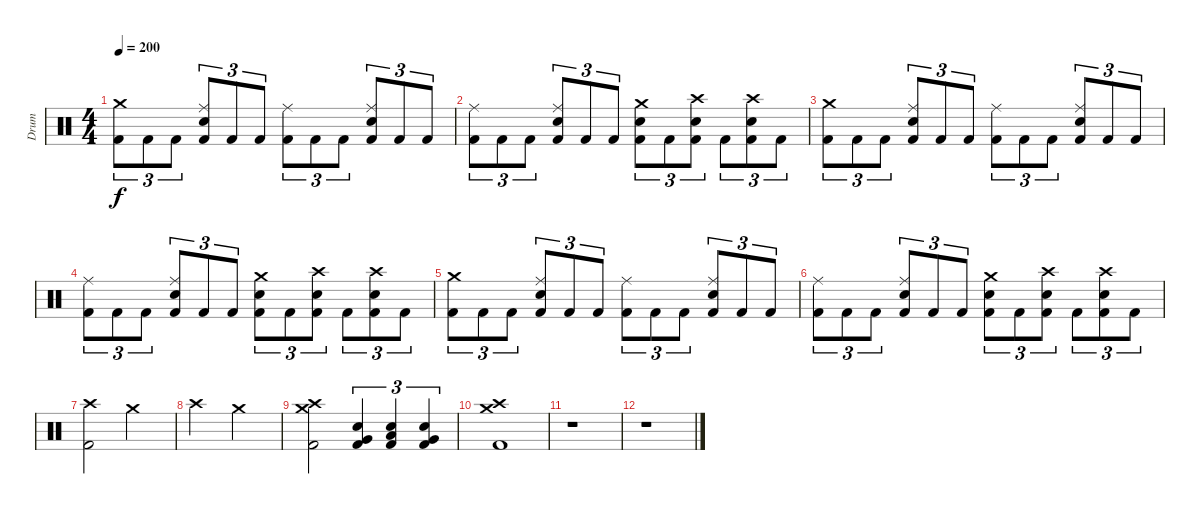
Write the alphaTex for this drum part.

\track ("Drum" "Drum") {instrument percussion}
\staff {score}
\articulation defaults
\ts (4 4)
\tempo 200
\clef neutral
\ks c
("Crash medium (hit)" "Kick (hit) 2").8{tu (3 2) dy f} "Kick (hit) 2".8{tu (3 2)} "Kick (hit) 2".8{tu (3 2)} ("Ride (middle)" "Electric Snare (hit)" "Kick (hit) 2").8{tu (3 2)} "Kick (hit) 2".8{tu (3 2)} "Kick (hit) 2".8{tu (3 2)} ("Ride (middle)" "Kick (hit) 2").8{tu (3 2)} "Kick (hit) 2".8{tu (3 2)} "Kick (hit) 2".8{tu (3 2)} ("Ride (middle)" "Electric Snare (hit)" "Kick (hit) 2").8{tu (3 2)} "Kick (hit) 2".8{tu (3 2)} "Kick (hit) 2".8{tu (3 2)} |
("Ride (middle)" "Kick (hit) 2").8{tu (3 2)} "Kick (hit) 2".8{tu (3 2)} "Kick (hit) 2".8{tu (3 2)} ("Ride (middle)" "Electric Snare (hit)" "Kick (hit) 2").8{tu (3 2)} "Kick (hit) 2".8{tu (3 2)} "Kick (hit) 2".8{tu (3 2)} ("Crash medium (hit)" "Electric Snare (hit)" "Kick (hit) 2").8{tu (3 2)} "Kick (hit) 2".8{tu (3 2)} ("Crash high (hit)" "Electric Snare (hit)" "Kick (hit) 2").8{tu (3 2)} "Kick (hit) 2".8{tu (3 2)} ("Crash high (hit)" "Electric Snare (hit)" "Kick (hit) 2").8{tu (3 2)} "Kick (hit) 2".8{tu (3 2)} |
("Crash medium (hit)" "Kick (hit) 2").8{tu (3 2)} "Kick (hit) 2".8{tu (3 2)} "Kick (hit) 2".8{tu (3 2)} ("Ride (middle)" "Electric Snare (hit)" "Kick (hit) 2").8{tu (3 2)} "Kick (hit) 2".8{tu (3 2)} "Kick (hit) 2".8{tu (3 2)} ("Ride (middle)" "Kick (hit) 2").8{tu (3 2)} "Kick (hit) 2".8{tu (3 2)} "Kick (hit) 2".8{tu (3 2)} ("Ride (middle)" "Electric Snare (hit)" "Kick (hit) 2").8{tu (3 2)} "Kick (hit) 2".8{tu (3 2)} "Kick (hit) 2".8{tu (3 2)} |
("Ride (middle)" "Kick (hit) 2").8{tu (3 2)} "Kick (hit) 2".8{tu (3 2)} "Kick (hit) 2".8{tu (3 2)} ("Ride (middle)" "Electric Snare (hit)" "Kick (hit) 2").8{tu (3 2)} "Kick (hit) 2".8{tu (3 2)} "Kick (hit) 2".8{tu (3 2)} ("Crash medium (hit)" "Electric Snare (hit)" "Kick (hit) 2").8{tu (3 2)} "Kick (hit) 2".8{tu (3 2)} ("Crash high (hit)" "Electric Snare (hit)" "Kick (hit) 2").8{tu (3 2)} "Kick (hit) 2".8{tu (3 2)} ("Crash high (hit)" "Electric Snare (hit)" "Kick (hit) 2").8{tu (3 2)} "Kick (hit) 2".8{tu (3 2)} |
("Crash medium (hit)" "Kick (hit) 2").8{tu (3 2)} "Kick (hit) 2".8{tu (3 2)} "Kick (hit) 2".8{tu (3 2)} ("Ride (middle)" "Electric Snare (hit)" "Kick (hit) 2").8{tu (3 2)} "Kick (hit) 2".8{tu (3 2)} "Kick (hit) 2".8{tu (3 2)} ("Ride (middle)" "Kick (hit) 2").8{tu (3 2)} "Kick (hit) 2".8{tu (3 2)} "Kick (hit) 2".8{tu (3 2)} ("Ride (middle)" "Electric Snare (hit)" "Kick (hit) 2").8{tu (3 2)} "Kick (hit) 2".8{tu (3 2)} "Kick (hit) 2".8{tu (3 2)} |
("Ride (middle)" "Kick (hit) 2").8{tu (3 2)} "Kick (hit) 2".8{tu (3 2)} "Kick (hit) 2".8{tu (3 2)} ("Ride (middle)" "Electric Snare (hit)" "Kick (hit) 2").8{tu (3 2)} "Kick (hit) 2".8{tu (3 2)} "Kick (hit) 2".8{tu (3 2)} ("Crash medium (hit)" "Electric Snare (hit)" "Kick (hit) 2").8{tu (3 2)} "Kick (hit) 2".8{tu (3 2)} ("Crash high (hit)" "Electric Snare (hit)" "Kick (hit) 2").8{tu (3 2)} "Kick (hit) 2".8{tu (3 2)} ("Crash high (hit)" "Electric Snare (hit)" "Kick (hit) 2").8{tu (3 2)} "Kick (hit) 2".8{tu (3 2)} |
("Crash high (hit)" "Kick (hit) 2").2 "Crash medium (hit)".2 |
"Crash high (hit)".2 "Crash medium (hit)".2 |
("Crash medium (hit)" "Crash high (hit)" "Kick (hit) 2").2 ("Electric Snare (hit)" "Very Low Tom (hit)" "Kick (hit) 2").4{tu (3 2)} ("Electric Snare (hit)" "Low Floor Tom (hit)" "Kick (hit) 2").4{tu (3 2)} ("Electric Snare (hit)" "Very Low Tom (hit)" "Kick (hit) 2").4{tu (3 2)} |
("Crash medium (hit)" "Crash high (hit)" "Kick (hit) 2").1 |
r.1 |
r.1
